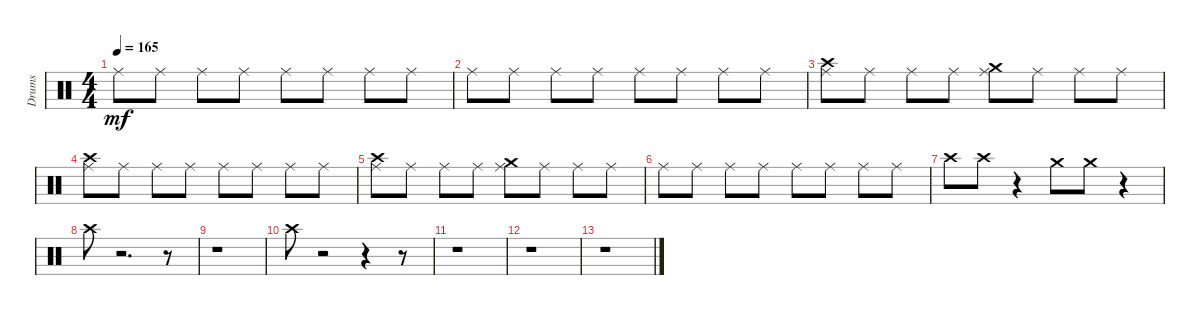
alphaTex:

\track ("Drums" "Drums") {instrument percussion}
\staff {score}
\articulation defaults
\ts (4 4)
\tempo 165
\clef neutral
\ks c "Ride (middle)".8{dy mf} "Ride (middle)".8 "Ride (middle)".8 "Ride (middle)".8 "Ride (middle)".8 "Ride (middle)".8 "Ride (middle)".8 "Ride (middle)".8
|
"Ride (middle)".8 "Ride (middle)".8 "Ride (middle)".8 "Ride (middle)".8 "Ride (middle)".8 "Ride (middle)".8 "Ride (middle)".8 "Ride (middle)".8 |
("Ride (middle)" "Crash high (hit)").8 "Ride (middle)".8 "Ride (middle)".8 "Ride (middle)".8 ("Ride (middle)" "Crash medium (hit)").8 "Ride (middle)".8 "Ride (middle)".8 "Ride (middle)".8 |
("Ride (middle)" "Crash high (hit)").8 "Ride (middle)".8 "Ride (middle)".8 "Ride (middle)".8 "Ride (middle)".8 "Ride (middle)".8 "Ride (middle)".8 "Ride (middle)".8 |
("Ride (middle)" "Crash high (hit)").8 "Ride (middle)".8 "Ride (middle)".8 "Ride (middle)".8 ("Ride (middle)" "Crash medium (hit)").8 "Ride (middle)".8 "Ride (middle)".8 "Ride (middle)".8 |
"Ride (middle)".8 "Ride (middle)".8 "Ride (middle)".8 "Ride (middle)".8 "Ride (middle)".8 "Ride (middle)".8 "Ride (middle)".8 "Ride (middle)".8 |
"Crash high (hit)".8 "Crash high (hit)".8 r.4 "Crash medium (hit)".8 "Crash medium (hit)".8 r.4 |
"Crash high (hit)".8 r.2{d} r.8 |
r.1 |
"Crash high (hit)".8 r.2 r.4 r.8 |
r.1 |
r.1 |
r.1
